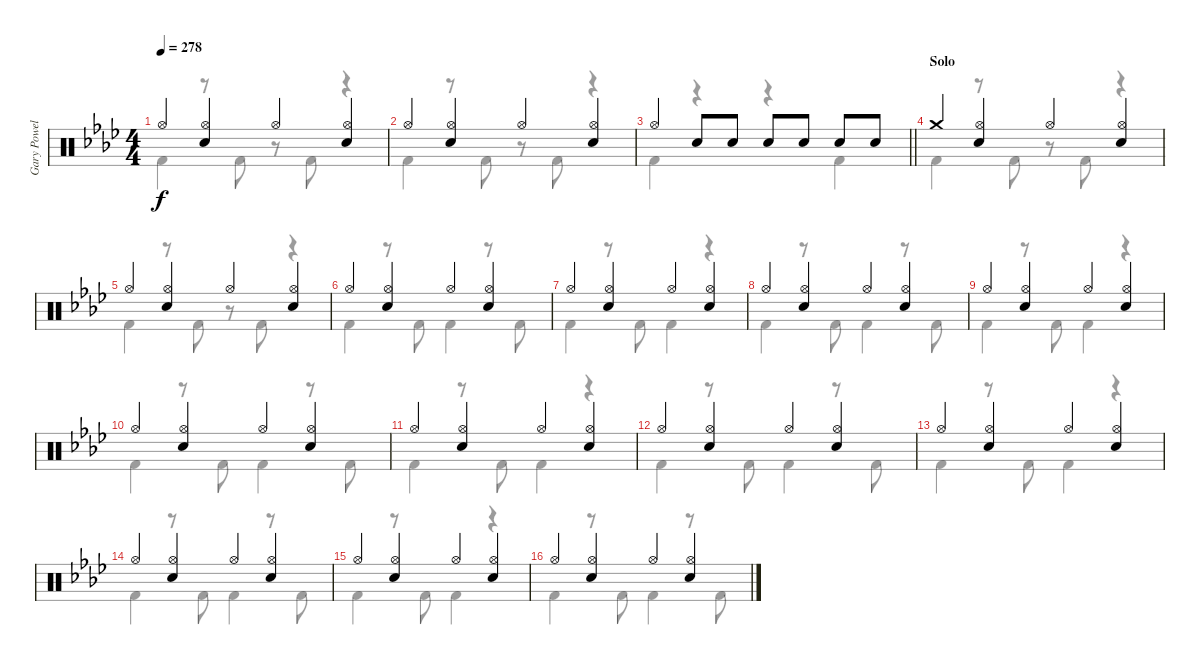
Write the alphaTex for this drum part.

\track ("Gary Powell" "Gary Powel") {instrument percussion}
\staff {score}
\articulation defaults
\voice
\ts (4 4)
\tempo 278
\clef neutral
\ks ab "Hi-Hat (open)".4{dy f}
("Hi-Hat (open)" "Electric Snare (hit)").4 "Hi-Hat (open)".4 ("Hi-Hat (open)" "Electric Snare (hit)").4 |
"Hi-Hat (open)".4 ("Hi-Hat (open)" "Electric Snare (hit)").4 "Hi-Hat (open)".4 ("Hi-Hat (open)" "Electric Snare (hit)").4 |
\barLineRight lightlight "Hi-Hat (open)".4 "Electric Snare (hit)".8 "Electric Snare (hit)".8 "Electric Snare (hit)".8 "Electric Snare (hit)".8 "Electric Snare (hit)".8 "Electric Snare (hit)".8
|
\section ("" "Solo")
"Crash medium (hit)".4 ("Hi-Hat (open)" "Electric Snare (hit)").4 "Hi-Hat (open)".4 ("Hi-Hat (open)" "Electric Snare (hit)").4 |
"Hi-Hat (open)".4 ("Hi-Hat (open)" "Electric Snare (hit)").4 "Hi-Hat (open)".4 ("Hi-Hat (open)" "Electric Snare (hit)").4 |
"Hi-Hat (open)".4 ("Hi-Hat (open)" "Electric Snare (hit)").4 "Hi-Hat (open)".4 ("Hi-Hat (open)" "Electric Snare (hit)").4 |
"Hi-Hat (open)".4 ("Hi-Hat (open)" "Electric Snare (hit)").4 "Hi-Hat (open)".4 ("Hi-Hat (open)" "Electric Snare (hit)").4 |
"Hi-Hat (open)".4 ("Hi-Hat (open)" "Electric Snare (hit)").4 "Hi-Hat (open)".4 ("Hi-Hat (open)" "Electric Snare (hit)").4 |
"Hi-Hat (open)".4 ("Hi-Hat (open)" "Electric Snare (hit)").4 "Hi-Hat (open)".4 ("Hi-Hat (open)" "Electric Snare (hit)").4 |
"Hi-Hat (open)".4 ("Hi-Hat (open)" "Electric Snare (hit)").4 "Hi-Hat (open)".4 ("Hi-Hat (open)" "Electric Snare (hit)").4 |
"Hi-Hat (open)".4 ("Hi-Hat (open)" "Electric Snare (hit)").4 "Hi-Hat (open)".4 ("Hi-Hat (open)" "Electric Snare (hit)").4 |
"Hi-Hat (open)".4 ("Hi-Hat (open)" "Electric Snare (hit)").4 "Hi-Hat (open)".4 ("Hi-Hat (open)" "Electric Snare (hit)").4 |
"Hi-Hat (open)".4 ("Hi-Hat (open)" "Electric Snare (hit)").4 "Hi-Hat (open)".4 ("Hi-Hat (open)" "Electric Snare (hit)").4 |
"Hi-Hat (open)".4 ("Hi-Hat (open)" "Electric Snare (hit)").4 "Hi-Hat (open)".4 ("Hi-Hat (open)" "Electric Snare (hit)").4 |
"Hi-Hat (open)".4 ("Hi-Hat (open)" "Electric Snare (hit)").4 "Hi-Hat (open)".4 ("Hi-Hat (open)" "Electric Snare (hit)").4 |
"Hi-Hat (open)".4 ("Hi-Hat (open)" "Electric Snare (hit)").4 "Hi-Hat (open)".4 ("Hi-Hat (open)" "Electric Snare (hit)").4
\voice
\clef neutral
\ottava regular
\simile none
\ks ab "Kick (hit) 2".4{dy f}
r.8 "Kick (hit) 2".8 r.8 "Kick (hit) 2".8 r.4 |
"Kick (hit) 2".4 r.8 "Kick (hit) 2".8 r.8 "Kick (hit) 2".8 r.4 |
\barLineRight lightlight "Kick (hit) 2".4
r.4 r.4 "Kick (hit) 2".4 |
"Kick (hit) 2".4 r.8 "Kick (hit) 2".8 r.8 "Kick (hit) 2".8 r.4 |
"Kick (hit) 2".4 r.8 "Kick (hit) 2".8 r.8 "Kick (hit) 2".8 r.4 |
"Kick (hit) 2".4 r.8 "Kick (hit) 2".8 "Kick (hit) 2".4 r.8 "Kick (hit) 2".8 |
"Kick (hit) 2".4 r.8 "Kick (hit) 2".8 "Kick (hit) 2".4 r.4 |
"Kick (hit) 2".4 r.8 "Kick (hit) 2".8 "Kick (hit) 2".4 r.8 "Kick (hit) 2".8 |
"Kick (hit) 2".4 r.8 "Kick (hit) 2".8 "Kick (hit) 2".4 r.4 |
"Kick (hit) 2".4 r.8 "Kick (hit) 2".8 "Kick (hit) 2".4 r.8 "Kick (hit) 2".8 |
"Kick (hit) 2".4 r.8 "Kick (hit) 2".8 "Kick (hit) 2".4 r.4 |
"Kick (hit) 2".4 r.8 "Kick (hit) 2".8 "Kick (hit) 2".4 r.8 "Kick (hit) 2".8 |
"Kick (hit) 2".4 r.8 "Kick (hit) 2".8 "Kick (hit) 2".4 r.4 |
"Kick (hit) 2".4 r.8 "Kick (hit) 2".8 "Kick (hit) 2".4 r.8 "Kick (hit) 2".8 |
"Kick (hit) 2".4 r.8 "Kick (hit) 2".8 "Kick (hit) 2".4 r.4 |
"Kick (hit) 2".4 r.8 "Kick (hit) 2".8 "Kick (hit) 2".4 r.8 "Kick (hit) 2".8
